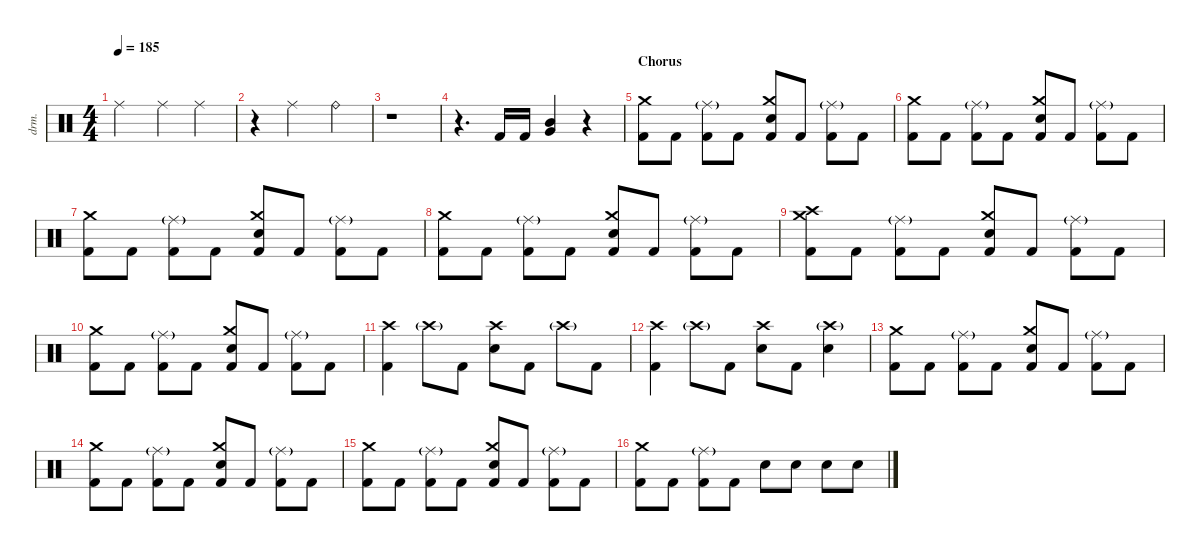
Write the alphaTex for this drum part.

\defaultSystemsLayout 4
\hideDynamics
\bracketExtendMode nobrackets
\track ("Drums - Šimon" "drm.") {instrument percussion}
\staff {score}
\articulation defaults
\ts (4 4)
\tempo 185
\clef neutral
\ks c "Ride (middle)".2{dy p} "Ride (middle)".4 "Ride (middle)".4
|
r.4 "Ride (middle)".2{dy mf} "Ride (bell)".4 |
r.1 |
r.4{d} "Kick (hit) 2".16{dy ff} "Kick (hit) 2".16 ("Very Low Tom (hit)" "Mid Tom (hit)").4 r.4 |
\section ("" "Chorus")
("Kick (hit) 2" "Crash medium (hit)").8 "Kick (hit) 2".8 ("Kick (hit) 2" "Ride (middle)"{g}).8 "Kick (hit) 2".8 ("Snare (hit) 2" "Kick (hit) 2" "Crash medium (hit)").8 "Kick (hit) 2".8 ("Kick (hit) 2" "Ride (middle)"{g}).8 "Kick (hit) 2".8 |
("Kick (hit) 2" "Crash medium (hit)").8 "Kick (hit) 2".8 ("Kick (hit) 2" "Ride (middle)"{g}).8 "Kick (hit) 2".8 ("Snare (hit) 2" "Kick (hit) 2" "Crash medium (hit)").8 "Kick (hit) 2".8 ("Kick (hit) 2" "Ride (middle)"{g}).8 "Kick (hit) 2".8 |
("Kick (hit) 2" "Crash medium (hit)").8 "Kick (hit) 2".8 ("Kick (hit) 2" "Ride (middle)"{g}).8 "Kick (hit) 2".8 ("Snare (hit) 2" "Kick (hit) 2" "Crash medium (hit)").8 "Kick (hit) 2".8 ("Kick (hit) 2" "Ride (middle)"{g}).8 "Kick (hit) 2".8 |
("Kick (hit) 2" "Crash medium (hit)").8 "Kick (hit) 2".8 ("Kick (hit) 2" "Ride (middle)"{g}).8 "Kick (hit) 2".8 ("Snare (hit) 2" "Kick (hit) 2" "Crash medium (hit)").8 "Kick (hit) 2".8 ("Kick (hit) 2" "Ride (middle)"{g}).8 "Kick (hit) 2".8 |
("Kick (hit) 2" "Crash medium (hit)" "Crash high (hit)").8 "Kick (hit) 2".8 ("Kick (hit) 2" "Ride (middle)"{g}).8 "Kick (hit) 2".8 ("Snare (hit) 2" "Kick (hit) 2" "Crash medium (hit)").8 "Kick (hit) 2".8 ("Kick (hit) 2" "Ride (middle)"{g}).8 "Kick (hit) 2".8 |
("Kick (hit) 2" "Crash medium (hit)").8 "Kick (hit) 2".8 ("Kick (hit) 2" "Ride (middle)"{g}).8 "Kick (hit) 2".8 ("Snare (hit) 2" "Kick (hit) 2" "Crash medium (hit)").8 "Kick (hit) 2".8 ("Kick (hit) 2" "Ride (middle)"{g}).8 "Kick (hit) 2".8 |
("Crash high (hit)" "Kick (hit) 2").4 "Crash high (hit)"{g}.8 "Kick (hit) 2".8 ("Snare (hit) 2" "Crash high (hit)").8 "Kick (hit) 2".8 "Crash high (hit)"{g}.8 "Kick (hit) 2".8 |
("Crash high (hit)" "Kick (hit) 2").4 "Crash high (hit)"{g}.8 "Kick (hit) 2".8 ("Snare (hit) 2" "Crash high (hit)").8 "Kick (hit) 2".8 ("Crash high (hit)"{g} "Snare (hit) 2").4 |
("Kick (hit) 2" "Crash medium (hit)").8 "Kick (hit) 2".8 ("Kick (hit) 2" "Ride (middle)"{g}).8 "Kick (hit) 2".8 ("Snare (hit) 2" "Kick (hit) 2" "Crash medium (hit)").8 "Kick (hit) 2".8 ("Kick (hit) 2" "Ride (middle)"{g}).8 "Kick (hit) 2".8 |
("Kick (hit) 2" "Crash medium (hit)").8 "Kick (hit) 2".8 ("Kick (hit) 2" "Ride (middle)"{g}).8 "Kick (hit) 2".8 ("Snare (hit) 2" "Kick (hit) 2" "Crash medium (hit)").8 "Kick (hit) 2".8 ("Kick (hit) 2" "Ride (middle)"{g}).8 "Kick (hit) 2".8 |
("Kick (hit) 2" "Crash medium (hit)").8 "Kick (hit) 2".8 ("Kick (hit) 2" "Ride (middle)"{g}).8 "Kick (hit) 2".8 ("Snare (hit) 2" "Kick (hit) 2" "Crash medium (hit)").8 "Kick (hit) 2".8 ("Kick (hit) 2" "Ride (middle)"{g}).8 "Kick (hit) 2".8 |
("Kick (hit) 2" "Crash medium (hit)").8 "Kick (hit) 2".8 ("Kick (hit) 2" "Ride (middle)"{g}).8 "Kick (hit) 2".8 "Snare (hit) 2".8 "Snare (hit) 2".8 "Snare (hit) 2".8 "Snare (hit) 2".8
